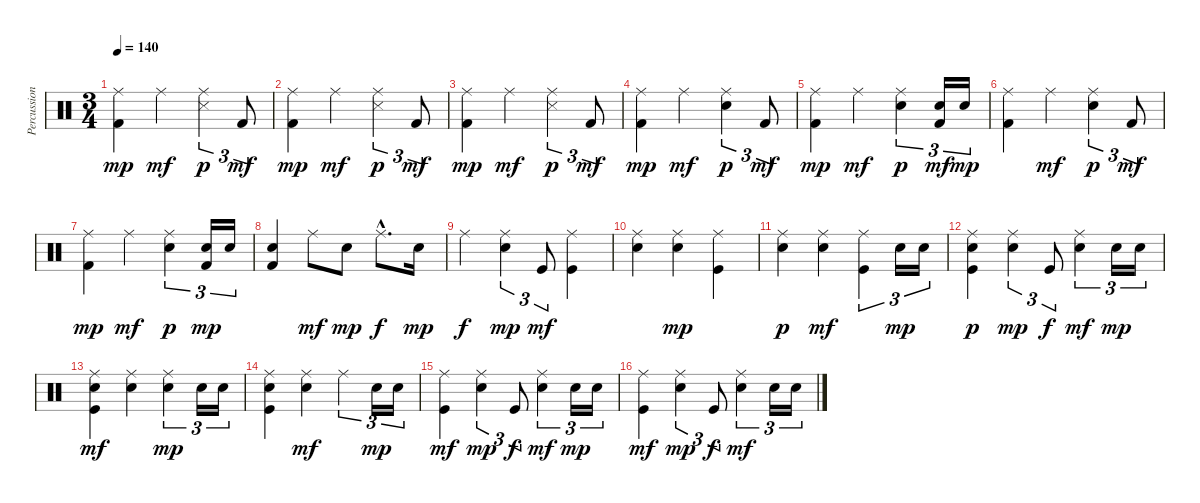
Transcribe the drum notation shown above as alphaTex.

\track ("Percussion" "Percussion") {instrument percussion}
\staff {score}
\articulation defaults
\ts (3 4)
\tempo 140
\clef neutral
\ks c
("Ride (middle)" "Kick (hit) 2").4{dy mp} "Ride (middle)".4{dy mf} ("Snare (side stick) 3" "Ride (middle)").4{tu (3 2) dy p} "Kick (hit) 2".8{tu (3 2) dy mf} |
("Ride (middle)" "Kick (hit) 2").4{dy mp} "Ride (middle)".4{dy mf} ("Snare (side stick) 3" "Ride (middle)").4{tu (3 2) dy p} "Kick (hit) 2".8{tu (3 2) dy mf} |
("Ride (middle)" "Kick (hit) 2").4{dy mp} "Ride (middle)".4{dy mf} ("Snare (side stick) 3" "Ride (middle)").4{tu (3 2) dy p} "Kick (hit) 2".8{tu (3 2) dy mf} |
("Kick (hit) 2" "Ride (middle)").4{dy mp} "Ride (middle)".4{dy mf} ("Electric Snare (hit)" "Ride (middle)").4{tu (3 2) dy p} "Kick (hit) 2".8{tu (3 2) dy mf} |
("Kick (hit) 2" "Ride (middle)").4{dy mp} "Ride (middle)".4{dy mf} ("Electric Snare (hit)" "Ride (middle)").4{tu (3 2) dy p} ("Electric Snare (hit)" "Kick (hit) 2").16{tu (3 2) dy mf} "Electric Snare (hit)".16{tu (3 2) dy mp} |
("Ride (middle)" "Kick (hit) 2").4 "Ride (middle)".4{dy mf} ("Ride (middle)" "Electric Snare (hit)").4{tu (3 2) dy p} "Kick (hit) 2".8{tu (3 2) dy mf} |
("Kick (hit) 2" "Ride (middle)").4{dy mp} "Ride (middle)".4{dy mf} ("Electric Snare (hit)" "Ride (middle)").4{tu (3 2) dy p} ("Kick (hit) 2" "Electric Snare (hit)").16{tu (3 2) dy mp} "Electric Snare (hit)".16{tu (3 2)} |
("Kick (hit) 2" "Electric Snare (hit)").4 "Ride (middle)".8{dy mf} "Electric Snare (hit)".8{dy mp} "Ride (middle)"{hac}.8{d dy f} "Electric Snare (hit)".16{dy mp} |
"Ride (middle)".4{dy f} ("Ride (middle)" "Electric Snare (hit)").4{tu (3 2) dy mp} "Kick (hit)".8{tu (3 2) dy mf} ("Ride (middle)" "Kick (hit)").4 |
("Electric Snare (hit)" "Ride (middle)").4 ("Ride (middle)" "Electric Snare (hit)").4{dy mp} ("Ride (middle)" "Kick (hit)").4 |
("Ride (middle)" "Electric Snare (hit)").4{dy p} ("Ride (middle)" "Electric Snare (hit)").4{dy mf} ("Ride (middle)" "Kick (hit)").4{tu (3 2)} "Electric Snare (hit)".16{tu (3 2) dy mp} "Electric Snare (hit)".16{tu (3 2)} |
("Kick (hit)" "Ride (middle)" "Electric Snare (hit)").4{dy p} ("Electric Snare (hit)" "Ride (middle)").4{tu (3 2) dy mp} "Kick (hit)".8{tu (3 2) dy f} ("Electric Snare (hit)" "Ride (middle)").4{tu (3 2) dy mf} "Electric Snare (hit)".16{tu (3 2) dy mp} "Electric Snare (hit)".16{tu (3 2)} |
("Kick (hit)" "Electric Snare (hit)" "Ride (middle)").4{dy mf} ("Electric Snare (hit)" "Ride (middle)").4 ("Electric Snare (hit)" "Ride (middle)").4{tu (3 2) dy mp} "Electric Snare (hit)".16{tu (3 2)} "Electric Snare (hit)".16{tu (3 2)} |
("Ride (middle)" "Kick (hit)" "Electric Snare (hit)").4 ("Electric Snare (hit)" "Ride (middle)").4{dy mf} "Ride (middle)".4{tu (3 2)} "Electric Snare (hit)".16{tu (3 2) dy mp} "Electric Snare (hit)".16{tu (3 2)} |
("Ride (middle)" "Kick (hit)").4{dy mf} ("Ride (middle)" "Electric Snare (hit)").4{tu (3 2) dy mp} "Kick (hit)".8{tu (3 2) dy f} ("Electric Snare (hit)" "Ride (middle)").4{tu (3 2) dy mf} "Electric Snare (hit)".16{tu (3 2) dy mp} "Electric Snare (hit)".16{tu (3 2)} |
("Kick (hit)" "Ride (middle)").4{dy mf} ("Ride (middle)" "Electric Snare (hit)").4{tu (3 2) dy mp} "Kick (hit)".8{tu (3 2) dy f} ("Electric Snare (hit)" "Ride (middle)").4{tu (3 2) dy mf} "Electric Snare (hit)".16{tu (3 2)} "Electric Snare (hit)".16{tu (3 2)}
